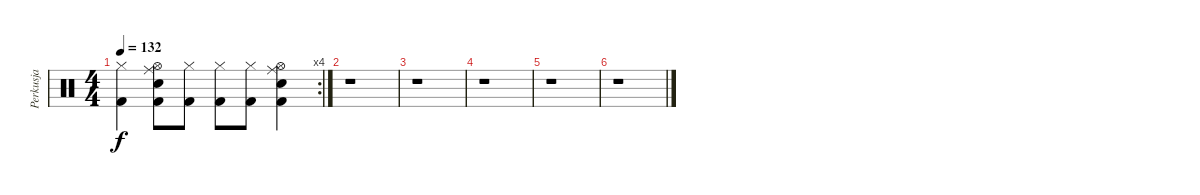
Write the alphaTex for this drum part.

\track ("Perkusja" "Perkusja") {instrument percussion}
\staff {score}
\articulation defaults
\rc 4
\ts (4 4)
\tempo 132
\clef neutral
\ks c
("Hi-Hat (closed)" "Kick (hit) 2").4{dy f} ("Electric Snare (hit)" "Kick (hit) 2" "Ride (middle)" "Hi-Hat (open)").8 ("Hi-Hat (closed)" "Kick (hit) 2").8 ("Hi-Hat (closed)" "Kick (hit) 2").8 ("Hi-Hat (closed)" "Kick (hit) 2").8 ("Electric Snare (hit)" "Kick (hit) 2" "Ride (middle)" "Hi-Hat (open)").4 |
r.1 |
r.1 |
r.1 |
r.1 |
r.1
